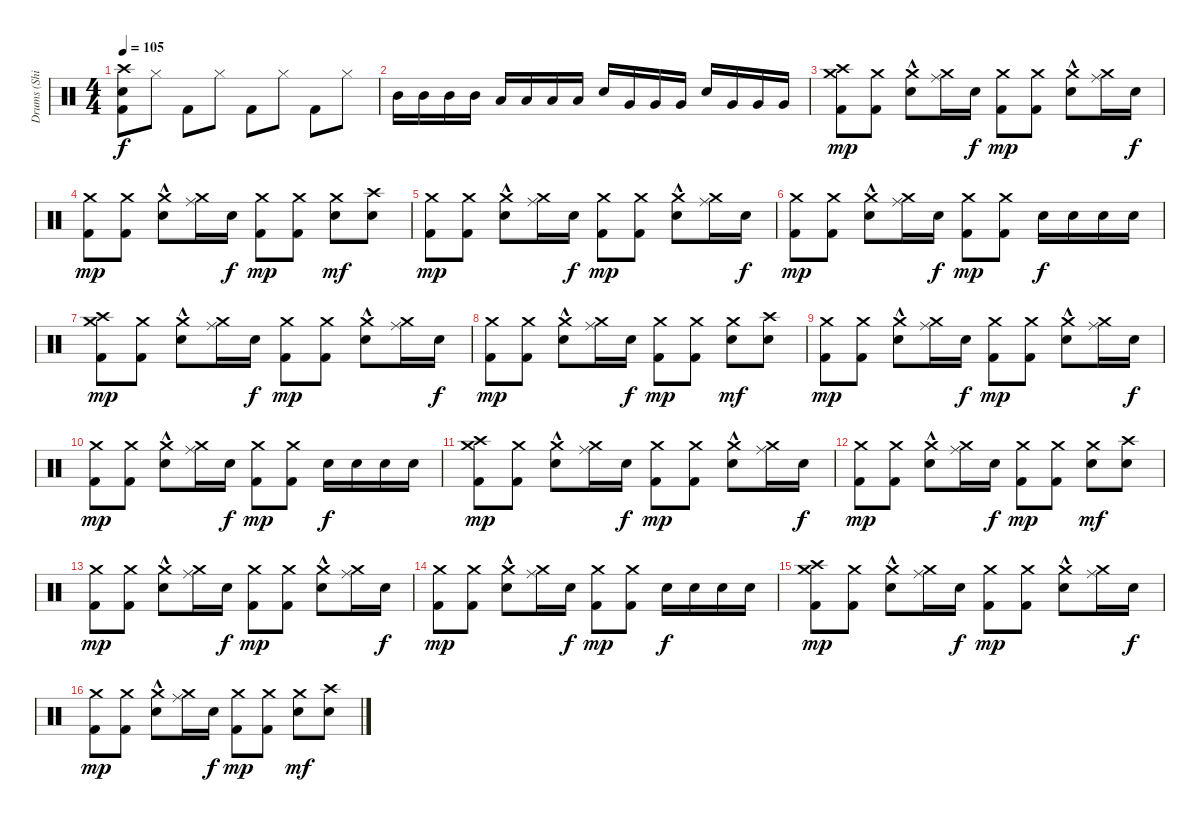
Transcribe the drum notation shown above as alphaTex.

\track ("Drums (Shinya)" "Drums (Shi") {instrument percussion}
\staff {score}
\articulation defaults
\ts (4 4)
\tempo 105
\clef neutral
\ks c
("Electric Snare (hit)" "Crash high (hit)" "Kick (hit) 2").8{dy f} "Hi-Hat (closed)".8 "Kick (hit) 2".8 "Hi-Hat (closed)".8 "Kick (hit) 2".8 "Hi-Hat (closed)".8 "Kick (hit) 2".8 "Hi-Hat (closed)".8 |
"Mid Tom (hit)".16 "Mid Tom (hit)".16 "Mid Tom (hit)".16 "Mid Tom (hit)".16 "Low Tom (hit)".16 "Low Tom (hit)".16 "Low Tom (hit)".16 "Low Tom (hit)".16 "Electric Snare (hit)".16 "Very Low Tom (hit)".16 "Very Low Tom (hit)".16 "Very Low Tom (hit)".16 "Electric Snare (hit)".16 "Very Low Tom (hit)".16 "Very Low Tom (hit)".16 "Very Low Tom (hit)".16 |
("Crash medium (hit)" "Crash high (hit)" "Kick (hit) 2").8{dy mp} ("Crash medium (hit)" "Kick (hit) 2").8 ("Crash medium (hit)" "Electric Snare (hit)"{hac}).8 ("Crash medium (hit)" "Ride (middle)").16 "Electric Snare (hit)".16{dy f} ("Crash medium (hit)" "Kick (hit) 2").8{dy mp} ("Crash medium (hit)" "Kick (hit) 2").8 ("Crash medium (hit)" "Electric Snare (hit)"{hac}).8 ("Ride (middle)" "Crash medium (hit)").16 "Electric Snare (hit)".16{dy f} |
("Kick (hit) 2" "Crash medium (hit)").8{dy mp} ("Kick (hit) 2" "Crash medium (hit)").8 ("Electric Snare (hit)"{hac} "Crash medium (hit)").8 ("Crash medium (hit)" "Ride (middle)").16 "Electric Snare (hit)".16{dy f} ("Kick (hit) 2" "Crash medium (hit)").8{dy mp} ("Kick (hit) 2" "Crash medium (hit)").8 ("Electric Snare (hit)" "Crash medium (hit)").8{dy mf} ("Electric Snare (hit)" "Crash high (hit)").8 |
("Crash medium (hit)" "Kick (hit) 2").8{dy mp} ("Crash medium (hit)" "Kick (hit) 2").8 ("Crash medium (hit)" "Electric Snare (hit)"{hac}).8 ("Crash medium (hit)" "Ride (middle)").16 "Electric Snare (hit)".16{dy f} ("Crash medium (hit)" "Kick (hit) 2").8{dy mp} ("Crash medium (hit)" "Kick (hit) 2").8 ("Crash medium (hit)" "Electric Snare (hit)"{hac}).8 ("Ride (middle)" "Crash medium (hit)").16 "Electric Snare (hit)".16{dy f} |
("Kick (hit) 2" "Crash medium (hit)").8{dy mp} ("Kick (hit) 2" "Crash medium (hit)").8 ("Electric Snare (hit)"{hac} "Crash medium (hit)").8 ("Crash medium (hit)" "Ride (middle)").16 "Electric Snare (hit)".16{dy f} ("Kick (hit) 2" "Crash medium (hit)").8{dy mp} ("Kick (hit) 2" "Crash medium (hit)").8 "Electric Snare (hit)".16{dy f} "Electric Snare (hit)".16 "Electric Snare (hit)".16 "Electric Snare (hit)".16 |
("Crash medium (hit)" "Crash high (hit)" "Kick (hit) 2").8{dy mp} ("Crash medium (hit)" "Kick (hit) 2").8 ("Crash medium (hit)" "Electric Snare (hit)"{hac}).8 ("Crash medium (hit)" "Ride (middle)").16 "Electric Snare (hit)".16{dy f} ("Crash medium (hit)" "Kick (hit) 2").8{dy mp} ("Crash medium (hit)" "Kick (hit) 2").8 ("Crash medium (hit)" "Electric Snare (hit)"{hac}).8 ("Ride (middle)" "Crash medium (hit)").16 "Electric Snare (hit)".16{dy f} |
("Kick (hit) 2" "Crash medium (hit)").8{dy mp} ("Kick (hit) 2" "Crash medium (hit)").8 ("Electric Snare (hit)"{hac} "Crash medium (hit)").8 ("Crash medium (hit)" "Ride (middle)").16 "Electric Snare (hit)".16{dy f} ("Kick (hit) 2" "Crash medium (hit)").8{dy mp} ("Kick (hit) 2" "Crash medium (hit)").8 ("Electric Snare (hit)" "Crash medium (hit)").8{dy mf} ("Electric Snare (hit)" "Crash high (hit)").8 |
("Crash medium (hit)" "Kick (hit) 2").8{dy mp} ("Crash medium (hit)" "Kick (hit) 2").8 ("Crash medium (hit)" "Electric Snare (hit)"{hac}).8 ("Crash medium (hit)" "Ride (middle)").16 "Electric Snare (hit)".16{dy f} ("Crash medium (hit)" "Kick (hit) 2").8{dy mp} ("Crash medium (hit)" "Kick (hit) 2").8 ("Crash medium (hit)" "Electric Snare (hit)"{hac}).8 ("Ride (middle)" "Crash medium (hit)").16 "Electric Snare (hit)".16{dy f} |
("Kick (hit) 2" "Crash medium (hit)").8{dy mp} ("Kick (hit) 2" "Crash medium (hit)").8 ("Electric Snare (hit)"{hac} "Crash medium (hit)").8 ("Crash medium (hit)" "Ride (middle)").16 "Electric Snare (hit)".16{dy f} ("Kick (hit) 2" "Crash medium (hit)").8{dy mp} ("Kick (hit) 2" "Crash medium (hit)").8 "Electric Snare (hit)".16{dy f} "Electric Snare (hit)".16 "Electric Snare (hit)".16 "Electric Snare (hit)".16 |
("Crash medium (hit)" "Crash high (hit)" "Kick (hit) 2").8{dy mp} ("Crash medium (hit)" "Kick (hit) 2").8 ("Crash medium (hit)" "Electric Snare (hit)"{hac}).8 ("Crash medium (hit)" "Ride (middle)").16 "Electric Snare (hit)".16{dy f} ("Crash medium (hit)" "Kick (hit) 2").8{dy mp} ("Crash medium (hit)" "Kick (hit) 2").8 ("Crash medium (hit)" "Electric Snare (hit)"{hac}).8 ("Ride (middle)" "Crash medium (hit)").16 "Electric Snare (hit)".16{dy f} |
("Kick (hit) 2" "Crash medium (hit)").8{dy mp} ("Kick (hit) 2" "Crash medium (hit)").8 ("Electric Snare (hit)"{hac} "Crash medium (hit)").8 ("Crash medium (hit)" "Ride (middle)").16 "Electric Snare (hit)".16{dy f} ("Kick (hit) 2" "Crash medium (hit)").8{dy mp} ("Kick (hit) 2" "Crash medium (hit)").8 ("Electric Snare (hit)" "Crash medium (hit)").8{dy mf} ("Electric Snare (hit)" "Crash high (hit)").8 |
("Crash medium (hit)" "Kick (hit) 2").8{dy mp} ("Crash medium (hit)" "Kick (hit) 2").8 ("Crash medium (hit)" "Electric Snare (hit)"{hac}).8 ("Crash medium (hit)" "Ride (middle)").16 "Electric Snare (hit)".16{dy f} ("Crash medium (hit)" "Kick (hit) 2").8{dy mp} ("Crash medium (hit)" "Kick (hit) 2").8 ("Crash medium (hit)" "Electric Snare (hit)"{hac}).8 ("Ride (middle)" "Crash medium (hit)").16 "Electric Snare (hit)".16{dy f} |
("Kick (hit) 2" "Crash medium (hit)").8{dy mp} ("Kick (hit) 2" "Crash medium (hit)").8 ("Electric Snare (hit)"{hac} "Crash medium (hit)").8 ("Crash medium (hit)" "Ride (middle)").16 "Electric Snare (hit)".16{dy f} ("Kick (hit) 2" "Crash medium (hit)").8{dy mp} ("Kick (hit) 2" "Crash medium (hit)").8 "Electric Snare (hit)".16{dy f} "Electric Snare (hit)".16 "Electric Snare (hit)".16 "Electric Snare (hit)".16 |
("Crash medium (hit)" "Crash high (hit)" "Kick (hit) 2").8{dy mp} ("Crash medium (hit)" "Kick (hit) 2").8 ("Crash medium (hit)" "Electric Snare (hit)"{hac}).8 ("Crash medium (hit)" "Ride (middle)").16 "Electric Snare (hit)".16{dy f} ("Crash medium (hit)" "Kick (hit) 2").8{dy mp} ("Crash medium (hit)" "Kick (hit) 2").8 ("Crash medium (hit)" "Electric Snare (hit)"{hac}).8 ("Ride (middle)" "Crash medium (hit)").16 "Electric Snare (hit)".16{dy f} |
("Kick (hit) 2" "Crash medium (hit)").8{dy mp} ("Kick (hit) 2" "Crash medium (hit)").8 ("Electric Snare (hit)"{hac} "Crash medium (hit)").8 ("Crash medium (hit)" "Ride (middle)").16 "Electric Snare (hit)".16{dy f} ("Kick (hit) 2" "Crash medium (hit)").8{dy mp} ("Kick (hit) 2" "Crash medium (hit)").8 ("Electric Snare (hit)" "Crash medium (hit)").8{dy mf} ("Electric Snare (hit)" "Crash high (hit)").8
